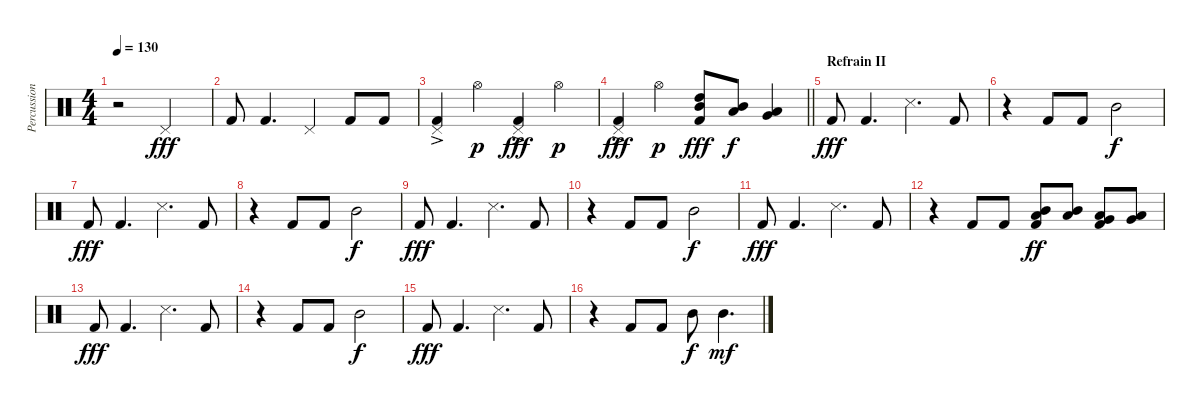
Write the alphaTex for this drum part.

\track ("Percussions" "Percussion") {instrument percussion}
\staff {score}
\articulation defaults
\ts (4 4)
\tempo 130
\clef neutral
\ks c
r.2{dy fff} "Pedal Hi-Hat (hit)".2 |
"Kick (hit) 2".8 "Kick (hit) 2".4{d} "Pedal Hi-Hat (hit)".4 "Kick (hit) 2".8 "Kick (hit) 2".8 |
("Pedal Hi-Hat (hit)"{ac} "Kick (hit) 2").4 "Hi-Hat (open)".4{dy p} ("Pedal Hi-Hat (hit)"{ac} "Kick (hit) 2").4{dy fff} "Hi-Hat (open)".4{dy p} |
\barLineRight lightlight
("Pedal Hi-Hat (hit)"{ac} "Kick (hit) 2").4{dy fff} "Hi-Hat (open)".4{dy p} ("High Tom (hit)" "Mid Tom (hit)" "Kick (hit) 2").8{dy fff} ("Mid Tom (hit)" "Low Tom (hit)").8{dy f} ("Low Tom (hit)" "Very Low Tom (hit)").4 |
\section ("" "Refrain II")
"Kick (hit) 2".8{dy fff} "Kick (hit) 2".4{d} "Snare (side stick) 3".4{d} "Kick (hit) 2".8 |
r.4 "Kick (hit) 2".8 "Kick (hit) 2".8 "Mid Tom (hit)".2{dy f} |
"Kick (hit) 2".8{dy fff} "Kick (hit) 2".4{d} "Snare (side stick) 3".4{d} "Kick (hit) 2".8 |
r.4 "Kick (hit) 2".8 "Kick (hit) 2".8 "Mid Tom (hit)".2{dy f} |
"Kick (hit) 2".8{dy fff} "Kick (hit) 2".4{d} "Snare (side stick) 3".4{d} "Kick (hit) 2".8 |
r.4 "Kick (hit) 2".8 "Kick (hit) 2".8 "Mid Tom (hit)".2{dy f} |
"Kick (hit) 2".8{dy fff} "Kick (hit) 2".4{d} "Snare (side stick) 3".4{d} "Kick (hit) 2".8 |
r.4 "Kick (hit) 2".8 "Kick (hit) 2".8 ("Kick (hit) 2" "Mid Tom (hit)" "Low Tom (hit)").8{dy ff} ("Mid Tom (hit)" "Low Tom (hit)").8 ("Kick (hit) 2" "Low Tom (hit)" "Very Low Tom (hit)").8 ("Low Tom (hit)" "Very Low Tom (hit)").8 |
"Kick (hit) 2".8{dy fff} "Kick (hit) 2".4{d} "Snare (side stick) 3".4{d} "Kick (hit) 2".8 |
r.4 "Kick (hit) 2".8 "Kick (hit) 2".8 "Mid Tom (hit)".2{dy f} |
"Kick (hit) 2".8{dy fff} "Kick (hit) 2".4{d} "Snare (side stick) 3".4{d} "Kick (hit) 2".8 |
r.4 "Kick (hit) 2".8 "Kick (hit) 2".8 "Mid Tom (hit)".8{dy f} "Mid Tom (hit)".4{d dy mf}
